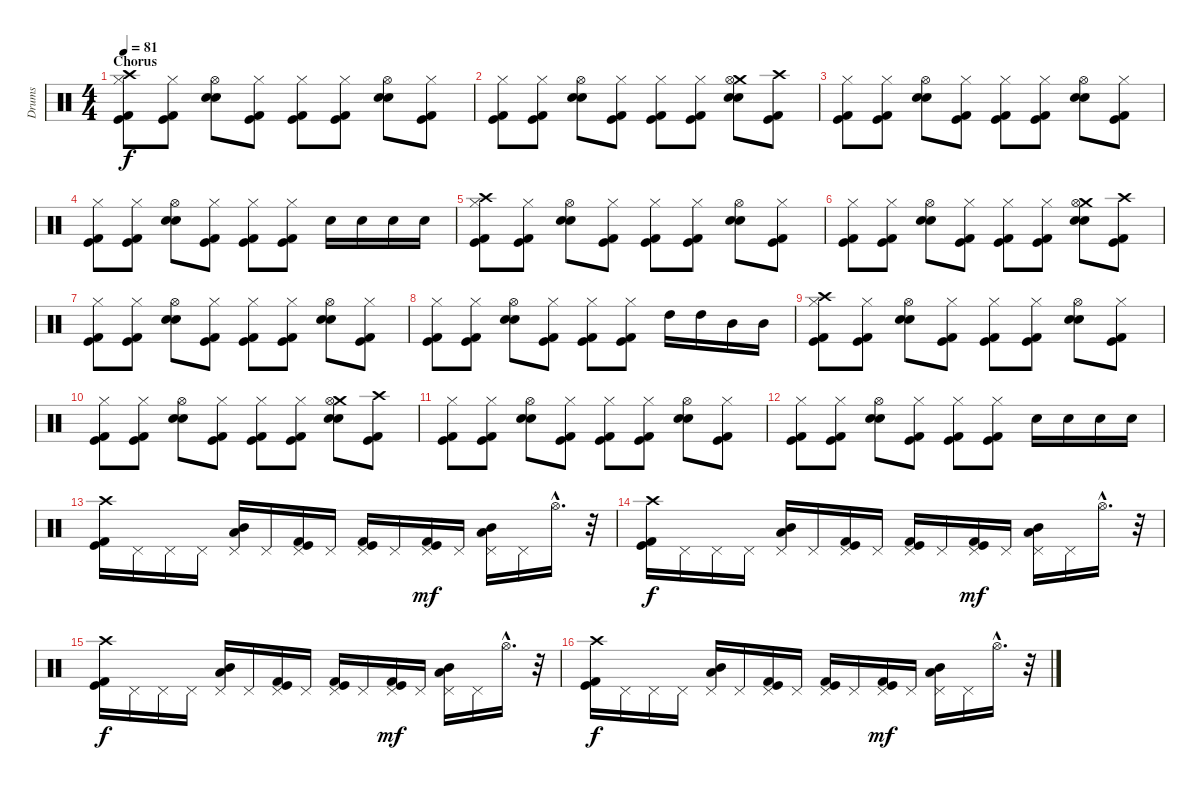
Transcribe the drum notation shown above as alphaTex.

\track ("Drums" "Drums") {instrument percussion}
\staff {score}
\articulation defaults
\ts (4 4)
\section ("" "Chorus")
\tempo 81
\clef neutral
\ks c
("Hi-Hat (closed)" "Crash high (hit)" "Kick (hit) 2" "Kick (hit)").8{dy f} ("Hi-Hat (closed)" "Kick (hit) 2" "Kick (hit)").8 ("Hi-Hat (open)" "Snare (hit) 2" "Electric Snare (hit)").8 ("Hi-Hat (closed)" "Kick (hit) 2" "Kick (hit)").8 ("Hi-Hat (closed)" "Kick (hit) 2" "Kick (hit)").8 ("Hi-Hat (closed)" "Kick (hit) 2" "Kick (hit)").8 ("Hi-Hat (open)" "Snare (hit) 2" "Electric Snare (hit)").8 ("Hi-Hat (closed)" "Kick (hit) 2" "Kick (hit)").8 |
("Hi-Hat (closed)" "Kick (hit) 2" "Kick (hit)").8 ("Hi-Hat (closed)" "Kick (hit) 2" "Kick (hit)").8 ("Hi-Hat (open)" "Snare (hit) 2" "Electric Snare (hit)").8 ("Hi-Hat (closed)" "Kick (hit) 2" "Kick (hit)").8 ("Hi-Hat (closed)" "Kick (hit) 2" "Kick (hit)").8 ("Hi-Hat (closed)" "Kick (hit) 2" "Kick (hit)").8 ("Crash medium (hit)" "Hi-Hat (open)" "Snare (hit) 2" "Electric Snare (hit)").8 ("Crash high (hit)" "Kick (hit) 2" "Kick (hit)").8 |
("Hi-Hat (closed)" "Kick (hit) 2" "Kick (hit)").8 ("Hi-Hat (closed)" "Kick (hit) 2" "Kick (hit)").8 ("Hi-Hat (open)" "Snare (hit) 2" "Electric Snare (hit)").8 ("Hi-Hat (closed)" "Kick (hit) 2" "Kick (hit)").8 ("Hi-Hat (closed)" "Kick (hit) 2" "Kick (hit)").8 ("Hi-Hat (closed)" "Kick (hit) 2" "Kick (hit)").8 ("Hi-Hat (open)" "Snare (hit) 2" "Electric Snare (hit)").8 ("Hi-Hat (closed)" "Kick (hit) 2" "Kick (hit)").8 |
("Hi-Hat (closed)" "Kick (hit) 2" "Kick (hit)").8 ("Hi-Hat (closed)" "Kick (hit) 2" "Kick (hit)").8 ("Hi-Hat (open)" "Snare (hit) 2" "Electric Snare (hit)").8 ("Hi-Hat (closed)" "Kick (hit) 2" "Kick (hit)").8 ("Hi-Hat (closed)" "Kick (hit) 2" "Kick (hit)").8 ("Hi-Hat (closed)" "Kick (hit) 2" "Kick (hit)").8 "Snare (hit) 2".16 "Snare (hit) 2".16 "Snare (hit) 2".16 "Snare (hit) 2".16 |
("Hi-Hat (closed)" "Crash high (hit)" "Kick (hit) 2" "Kick (hit)").8 ("Hi-Hat (closed)" "Kick (hit) 2" "Kick (hit)").8 ("Hi-Hat (open)" "Snare (hit) 2" "Electric Snare (hit)").8 ("Hi-Hat (closed)" "Kick (hit) 2" "Kick (hit)").8 ("Hi-Hat (closed)" "Kick (hit) 2" "Kick (hit)").8 ("Hi-Hat (closed)" "Kick (hit) 2" "Kick (hit)").8 ("Hi-Hat (open)" "Snare (hit) 2" "Electric Snare (hit)").8 ("Hi-Hat (closed)" "Kick (hit) 2" "Kick (hit)").8 |
("Hi-Hat (closed)" "Kick (hit) 2" "Kick (hit)").8 ("Hi-Hat (closed)" "Kick (hit) 2" "Kick (hit)").8 ("Hi-Hat (open)" "Snare (hit) 2" "Electric Snare (hit)").8 ("Hi-Hat (closed)" "Kick (hit) 2" "Kick (hit)").8 ("Hi-Hat (closed)" "Kick (hit) 2" "Kick (hit)").8 ("Hi-Hat (closed)" "Kick (hit) 2" "Kick (hit)").8 ("Crash medium (hit)" "Hi-Hat (open)" "Snare (hit) 2" "Electric Snare (hit)").8 ("Crash high (hit)" "Kick (hit) 2" "Kick (hit)").8 |
("Hi-Hat (closed)" "Kick (hit) 2" "Kick (hit)").8 ("Hi-Hat (closed)" "Kick (hit) 2" "Kick (hit)").8 ("Hi-Hat (open)" "Snare (hit) 2" "Electric Snare (hit)").8 ("Hi-Hat (closed)" "Kick (hit) 2" "Kick (hit)").8 ("Hi-Hat (closed)" "Kick (hit) 2" "Kick (hit)").8 ("Hi-Hat (closed)" "Kick (hit) 2" "Kick (hit)").8 ("Hi-Hat (open)" "Snare (hit) 2" "Electric Snare (hit)").8 ("Hi-Hat (closed)" "Kick (hit) 2" "Kick (hit)").8 |
("Hi-Hat (closed)" "Kick (hit) 2" "Kick (hit)").8 ("Hi-Hat (closed)" "Kick (hit) 2" "Kick (hit)").8 ("Hi-Hat (open)" "Snare (hit) 2" "Electric Snare (hit)").8 ("Hi-Hat (closed)" "Kick (hit) 2" "Kick (hit)").8 ("Hi-Hat (closed)" "Kick (hit) 2" "Kick (hit)").8 ("Hi-Hat (closed)" "Kick (hit) 2" "Kick (hit)").8 "High Tom (hit)".16 "High Tom (hit)".16 "Mid Tom (hit)".16 "Mid Tom (hit)".16 |
("Hi-Hat (closed)" "Crash high (hit)" "Kick (hit) 2" "Kick (hit)").8 ("Hi-Hat (closed)" "Kick (hit) 2" "Kick (hit)").8 ("Hi-Hat (open)" "Snare (hit) 2" "Electric Snare (hit)").8 ("Hi-Hat (closed)" "Kick (hit) 2" "Kick (hit)").8 ("Hi-Hat (closed)" "Kick (hit) 2" "Kick (hit)").8 ("Hi-Hat (closed)" "Kick (hit) 2" "Kick (hit)").8 ("Hi-Hat (open)" "Snare (hit) 2" "Electric Snare (hit)").8 ("Hi-Hat (closed)" "Kick (hit) 2" "Kick (hit)").8 |
("Hi-Hat (closed)" "Kick (hit) 2" "Kick (hit)").8 ("Hi-Hat (closed)" "Kick (hit) 2" "Kick (hit)").8 ("Hi-Hat (open)" "Snare (hit) 2" "Electric Snare (hit)").8 ("Hi-Hat (closed)" "Kick (hit) 2" "Kick (hit)").8 ("Hi-Hat (closed)" "Kick (hit) 2" "Kick (hit)").8 ("Hi-Hat (closed)" "Kick (hit) 2" "Kick (hit)").8 ("Crash medium (hit)" "Hi-Hat (open)" "Snare (hit) 2" "Electric Snare (hit)").8 ("Crash high (hit)" "Kick (hit) 2" "Kick (hit)").8 |
("Hi-Hat (closed)" "Kick (hit) 2" "Kick (hit)").8 ("Hi-Hat (closed)" "Kick (hit) 2" "Kick (hit)").8 ("Hi-Hat (open)" "Snare (hit) 2" "Electric Snare (hit)").8 ("Hi-Hat (closed)" "Kick (hit) 2" "Kick (hit)").8 ("Hi-Hat (closed)" "Kick (hit) 2" "Kick (hit)").8 ("Hi-Hat (closed)" "Kick (hit) 2" "Kick (hit)").8 ("Hi-Hat (open)" "Snare (hit) 2" "Electric Snare (hit)").8 ("Hi-Hat (closed)" "Kick (hit) 2" "Kick (hit)").8 |
("Hi-Hat (closed)" "Kick (hit) 2" "Kick (hit)").8 ("Hi-Hat (closed)" "Kick (hit) 2" "Kick (hit)").8 ("Hi-Hat (open)" "Snare (hit) 2" "Electric Snare (hit)").8 ("Hi-Hat (closed)" "Kick (hit) 2" "Kick (hit)").8 ("Hi-Hat (closed)" "Kick (hit) 2" "Kick (hit)").8 ("Hi-Hat (closed)" "Kick (hit) 2" "Kick (hit)").8 "Snare (hit) 2".16 "Snare (hit) 2".16 "Snare (hit) 2".16 "Snare (hit) 2".16 |
("Crash high (hit)" "Kick (hit)" "Kick (hit) 2").16 "Pedal Hi-Hat (hit)".16 "Pedal Hi-Hat (hit)".16 "Pedal Hi-Hat (hit)".16 ("Pedal Hi-Hat (hit)" "Mid Tom (hit)" "Low Tom (hit)").16 "Pedal Hi-Hat (hit)".16 ("Pedal Hi-Hat (hit)" "Kick (hit)" "Kick (hit) 2").16 "Pedal Hi-Hat (hit)".16 ("Pedal Hi-Hat (hit)" "Kick (hit)" "Kick (hit) 2").16 "Pedal Hi-Hat (hit)".16 ("Pedal Hi-Hat (hit)" "Kick (hit)" "Kick (hit) 2").16{dy mf} "Pedal Hi-Hat (hit)".16 ("Pedal Hi-Hat (hit)" "Mid Tom (hit)" "Low Tom (hit)").16 "Pedal Hi-Hat (hit)".16 "Hi-Hat (open)"{hac}.16{d} r.32 |
("Crash high (hit)" "Kick (hit)" "Kick (hit) 2").16{dy f} "Pedal Hi-Hat (hit)".16 "Pedal Hi-Hat (hit)".16 "Pedal Hi-Hat (hit)".16 ("Pedal Hi-Hat (hit)" "Mid Tom (hit)" "Low Tom (hit)").16 "Pedal Hi-Hat (hit)".16 ("Pedal Hi-Hat (hit)" "Kick (hit)" "Kick (hit) 2").16 "Pedal Hi-Hat (hit)".16 ("Pedal Hi-Hat (hit)" "Kick (hit)" "Kick (hit) 2").16 "Pedal Hi-Hat (hit)".16 ("Pedal Hi-Hat (hit)" "Kick (hit)" "Kick (hit) 2").16{dy mf} "Pedal Hi-Hat (hit)".16 ("Pedal Hi-Hat (hit)" "Mid Tom (hit)" "Low Tom (hit)").16 "Pedal Hi-Hat (hit)".16 "Hi-Hat (open)"{hac}.16{d} r.32 |
("Crash high (hit)" "Kick (hit)" "Kick (hit) 2").16{dy f} "Pedal Hi-Hat (hit)".16 "Pedal Hi-Hat (hit)".16 "Pedal Hi-Hat (hit)".16 ("Pedal Hi-Hat (hit)" "Mid Tom (hit)" "Low Tom (hit)").16 "Pedal Hi-Hat (hit)".16 ("Pedal Hi-Hat (hit)" "Kick (hit)" "Kick (hit) 2").16 "Pedal Hi-Hat (hit)".16 ("Pedal Hi-Hat (hit)" "Kick (hit)" "Kick (hit) 2").16 "Pedal Hi-Hat (hit)".16 ("Pedal Hi-Hat (hit)" "Kick (hit)" "Kick (hit) 2").16{dy mf} "Pedal Hi-Hat (hit)".16 ("Pedal Hi-Hat (hit)" "Mid Tom (hit)" "Low Tom (hit)").16 "Pedal Hi-Hat (hit)".16 "Hi-Hat (open)"{hac}.16{d} r.32 |
("Crash high (hit)" "Kick (hit)" "Kick (hit) 2").16{dy f} "Pedal Hi-Hat (hit)".16 "Pedal Hi-Hat (hit)".16 "Pedal Hi-Hat (hit)".16 ("Pedal Hi-Hat (hit)" "Mid Tom (hit)" "Low Tom (hit)").16 "Pedal Hi-Hat (hit)".16 ("Pedal Hi-Hat (hit)" "Kick (hit)" "Kick (hit) 2").16 "Pedal Hi-Hat (hit)".16 ("Pedal Hi-Hat (hit)" "Kick (hit)" "Kick (hit) 2").16 "Pedal Hi-Hat (hit)".16 ("Pedal Hi-Hat (hit)" "Kick (hit)" "Kick (hit) 2").16{dy mf} "Pedal Hi-Hat (hit)".16 ("Pedal Hi-Hat (hit)" "Mid Tom (hit)" "Low Tom (hit)").16 "Pedal Hi-Hat (hit)".16 "Hi-Hat (open)"{hac}.16{d} r.32
